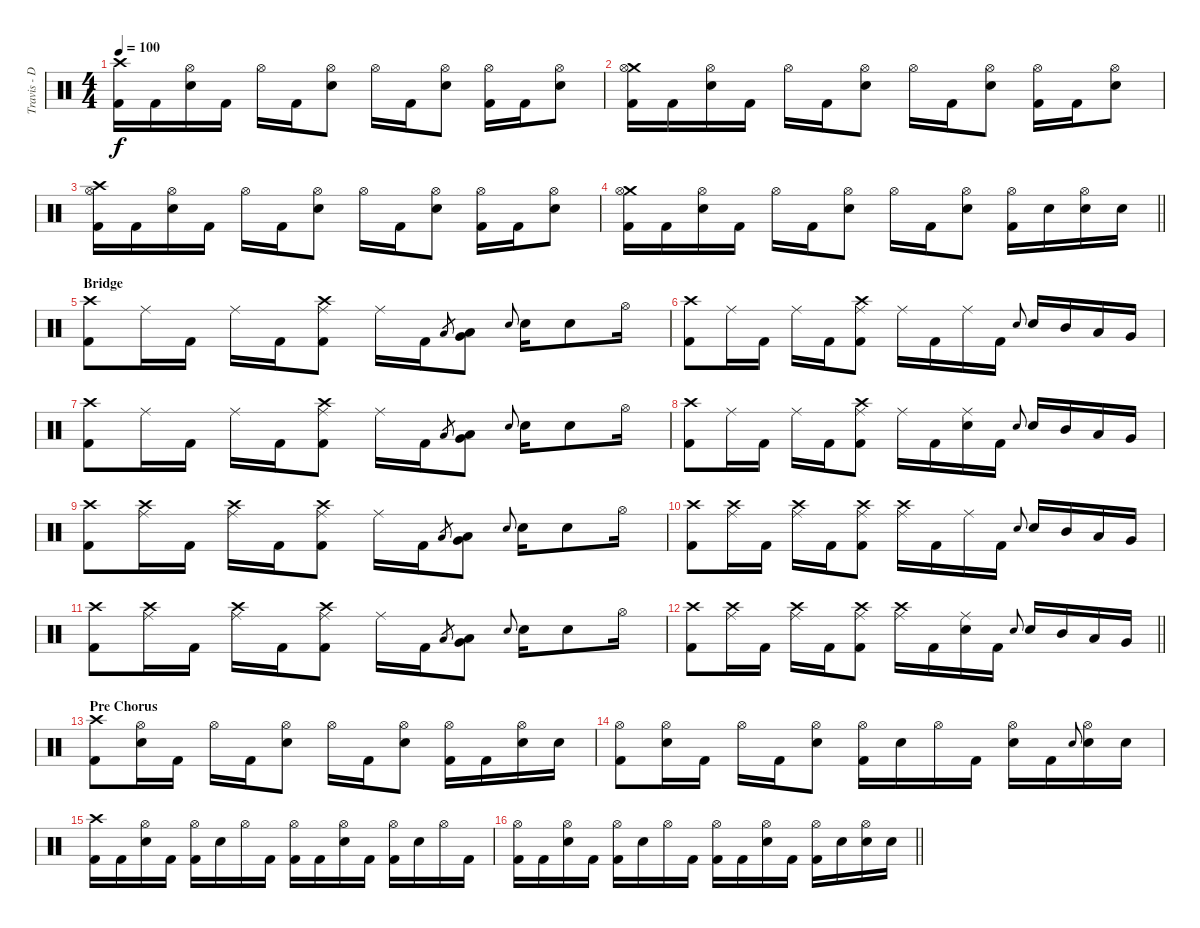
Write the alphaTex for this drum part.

\track ("Travis - Drums" "Travis - D") {instrument percussion}
\staff {score}
\articulation defaults
\ts (4 4)
\tempo 100
\clef neutral
\ks c
("Crash high (hit)" "Kick (hit) 2").16{dy f} "Kick (hit) 2".16 ("Hi-Hat (open)" "Electric Snare (hit)").16 "Kick (hit) 2".16 "Hi-Hat (open)".16 "Kick (hit) 2".16 ("Hi-Hat (open)" "Electric Snare (hit)").8 "Hi-Hat (open)".16 "Kick (hit) 2".16 ("Hi-Hat (open)" "Electric Snare (hit)").8 ("Hi-Hat (open)" "Kick (hit) 2").16 "Kick (hit) 2".16 ("Hi-Hat (open)" "Electric Snare (hit)").8 |
("Crash medium (hit)" "Hi-Hat (open)" "Kick (hit) 2").16 "Kick (hit) 2".16 ("Hi-Hat (open)" "Electric Snare (hit)").16 "Kick (hit) 2".16 "Hi-Hat (open)".16 "Kick (hit) 2".16 ("Hi-Hat (open)" "Electric Snare (hit)").8 "Hi-Hat (open)".16 "Kick (hit) 2".16 ("Hi-Hat (open)" "Electric Snare (hit)").8 ("Hi-Hat (open)" "Kick (hit) 2").16 "Kick (hit) 2".16 ("Hi-Hat (open)" "Electric Snare (hit)").8 |
("Crash high (hit)" "Hi-Hat (open)" "Kick (hit) 2").16 "Kick (hit) 2".16 ("Hi-Hat (open)" "Electric Snare (hit)").16 "Kick (hit) 2".16 "Hi-Hat (open)".16 "Kick (hit) 2".16 ("Hi-Hat (open)" "Electric Snare (hit)").8 "Hi-Hat (open)".16 "Kick (hit) 2".16 ("Hi-Hat (open)" "Electric Snare (hit)").8 ("Hi-Hat (open)" "Kick (hit) 2").16 "Kick (hit) 2".16 ("Hi-Hat (open)" "Electric Snare (hit)").8 |
\barLineRight lightlight
("Crash medium (hit)" "Hi-Hat (open)" "Kick (hit) 2").16 "Kick (hit) 2".16 ("Hi-Hat (open)" "Electric Snare (hit)").16 "Kick (hit) 2".16 "Hi-Hat (open)".16 "Kick (hit) 2".16 ("Hi-Hat (open)" "Electric Snare (hit)").8 "Hi-Hat (open)".16 "Kick (hit) 2".16 ("Hi-Hat (open)" "Electric Snare (hit)").8 ("Hi-Hat (open)" "Kick (hit) 2").16 "Electric Snare (hit)".16 ("Hi-Hat (open)" "Electric Snare (hit)").16 "Electric Snare (hit)".16 |
\section ("" "Bridge")
("Crash high (hit)" "Kick (hit) 2").8 "Ride (middle)".16 "Kick (hit) 2".16 "Ride (middle)".16 "Kick (hit) 2".16 ("Crash high (hit)" "Ride (middle)" "Kick (hit) 2").8 "Ride (middle)".16 "Kick (hit) 2".16 "Low Tom (hit)".8{gr} ("Low Tom (hit)" "Very Low Tom (hit)").8 "Electric Snare (hit)".8{gr onbeat} "Electric Snare (hit)".16 "Electric Snare (hit)".8 "Hi-Hat (open)".16 |
("Crash high (hit)" "Kick (hit) 2").8 "Ride (middle)".16 "Kick (hit) 2".16 "Ride (middle)".16 "Kick (hit) 2".16 ("Crash high (hit)" "Ride (middle)" "Kick (hit) 2").8 "Ride (middle)".16 "Kick (hit) 2".16 "Ride (middle)".16 "Kick (hit) 2".16 "Electric Snare (hit)".8{gr onbeat} "Electric Snare (hit)".16 "Mid Tom (hit)".16 "Low Tom (hit)".16 "Very Low Tom (hit)".16 |
("Crash high (hit)" "Kick (hit) 2").8 "Ride (middle)".16 "Kick (hit) 2".16 "Ride (middle)".16 "Kick (hit) 2".16 ("Crash high (hit)" "Ride (middle)" "Kick (hit) 2").8 "Ride (middle)".16 "Kick (hit) 2".16 "Low Tom (hit)".8{gr} ("Low Tom (hit)" "Very Low Tom (hit)").8 "Electric Snare (hit)".8{gr onbeat} "Electric Snare (hit)".16 "Electric Snare (hit)".8 "Hi-Hat (open)".16 |
("Crash high (hit)" "Kick (hit) 2").8 "Ride (middle)".16 "Kick (hit) 2".16 "Ride (middle)".16 "Kick (hit) 2".16 ("Crash high (hit)" "Ride (middle)" "Kick (hit) 2").8 "Ride (middle)".16 "Kick (hit) 2".16 ("Ride (middle)" "Electric Snare (hit)").16 "Kick (hit) 2".16 "Electric Snare (hit)".8{gr onbeat} "Electric Snare (hit)".16 "Mid Tom (hit)".16 "Low Tom (hit)".16 "Very Low Tom (hit)".16 |
("Crash high (hit)" "Kick (hit) 2").8 ("Crash high (hit)" "Ride (middle)").16 "Kick (hit) 2".16 ("Crash high (hit)" "Ride (middle)").16 "Kick (hit) 2".16 ("Crash high (hit)" "Ride (middle)" "Kick (hit) 2").8 "Ride (middle)".16 "Kick (hit) 2".16 "Low Tom (hit)".8{gr} ("Low Tom (hit)" "Very Low Tom (hit)").8 "Electric Snare (hit)".8{gr onbeat} "Electric Snare (hit)".16 "Electric Snare (hit)".8 "Hi-Hat (open)".16 |
("Crash high (hit)" "Kick (hit) 2").8 ("Crash high (hit)" "Ride (middle)").16 "Kick (hit) 2".16 ("Crash high (hit)" "Ride (middle)").16 "Kick (hit) 2".16 ("Crash high (hit)" "Ride (middle)" "Kick (hit) 2").8 ("Crash high (hit)" "Ride (middle)").16 "Kick (hit) 2".16 "Ride (middle)".16 "Kick (hit) 2".16 "Electric Snare (hit)".8{gr onbeat} "Electric Snare (hit)".16 "Mid Tom (hit)".16 "Low Tom (hit)".16 "Very Low Tom (hit)".16 |
("Crash high (hit)" "Kick (hit) 2").8 ("Crash high (hit)" "Ride (middle)").16 "Kick (hit) 2".16 ("Crash high (hit)" "Ride (middle)").16 "Kick (hit) 2".16 ("Crash high (hit)" "Ride (middle)" "Kick (hit) 2").8 "Ride (middle)".16 "Kick (hit) 2".16 "Low Tom (hit)".8{gr} ("Low Tom (hit)" "Very Low Tom (hit)").8 "Electric Snare (hit)".8{gr onbeat} "Electric Snare (hit)".16 "Electric Snare (hit)".8 "Hi-Hat (open)".16 |
\barLineRight lightlight
("Crash high (hit)" "Kick (hit) 2").8 ("Crash high (hit)" "Ride (middle)").16 "Kick (hit) 2".16 ("Crash high (hit)" "Ride (middle)").16 "Kick (hit) 2".16 ("Crash high (hit)" "Ride (middle)" "Kick (hit) 2").8 ("Crash high (hit)" "Ride (middle)").16 "Kick (hit) 2".16 ("Ride (middle)" "Electric Snare (hit)").16 "Kick (hit) 2".16 "Electric Snare (hit)".8{gr onbeat} "Electric Snare (hit)".16 "Mid Tom (hit)".16 "Low Tom (hit)".16 "Very Low Tom (hit)".16 |
\section ("" "Pre Chorus")
("Crash high (hit)" "Kick (hit) 2").8 ("Hi-Hat (open)" "Electric Snare (hit)").16 "Kick (hit) 2".16 "Hi-Hat (open)".16 "Kick (hit) 2".16 ("Hi-Hat (open)" "Electric Snare (hit)").8 "Hi-Hat (open)".16 "Kick (hit) 2".16 ("Hi-Hat (open)" "Electric Snare (hit)").8 ("Hi-Hat (open)" "Kick (hit) 2").16 "Kick (hit) 2".16 ("Hi-Hat (open)" "Electric Snare (hit)").16 "Electric Snare (hit)".16 |
("Hi-Hat (open)" "Kick (hit) 2").8 ("Hi-Hat (open)" "Electric Snare (hit)").16 "Kick (hit) 2".16 "Hi-Hat (open)".16 "Kick (hit) 2".16 ("Hi-Hat (open)" "Electric Snare (hit)").8 ("Hi-Hat (open)" "Kick (hit) 2").16 "Electric Snare (hit)".16 "Hi-Hat (open)".16 "Kick (hit) 2".16 ("Hi-Hat (open)" "Electric Snare (hit)").16 "Kick (hit) 2".16 "Electric Snare (hit)".8{gr onbeat} ("Hi-Hat (open)" "Electric Snare (hit)").16 "Electric Snare (hit)".16 |
("Crash high (hit)" "Kick (hit) 2").16 "Kick (hit) 2".16 ("Hi-Hat (open)" "Electric Snare (hit)").16 "Kick (hit) 2".16 ("Hi-Hat (open)" "Kick (hit) 2").16 "Electric Snare (hit)".16 "Hi-Hat (open)".16 "Kick (hit) 2".16 ("Hi-Hat (open)" "Kick (hit) 2").16 "Kick (hit) 2".16 ("Hi-Hat (open)" "Electric Snare (hit)").16 "Kick (hit) 2".16 ("Hi-Hat (open)" "Kick (hit) 2").16 "Electric Snare (hit)".16 "Hi-Hat (open)".16 "Kick (hit) 2".16 |
\barLineRight lightlight
("Hi-Hat (open)" "Kick (hit) 2").16 "Kick (hit) 2".16 ("Hi-Hat (open)" "Electric Snare (hit)").16 "Kick (hit) 2".16 ("Hi-Hat (open)" "Kick (hit) 2").16 "Electric Snare (hit)".16 "Hi-Hat (open)".16 "Kick (hit) 2".16 ("Hi-Hat (open)" "Kick (hit) 2").16 "Kick (hit) 2".16 ("Hi-Hat (open)" "Electric Snare (hit)").16 "Kick (hit) 2".16 ("Hi-Hat (open)" "Kick (hit) 2").16 "Electric Snare (hit)".16 ("Hi-Hat (open)" "Electric Snare (hit)").16 "Electric Snare (hit)".16
